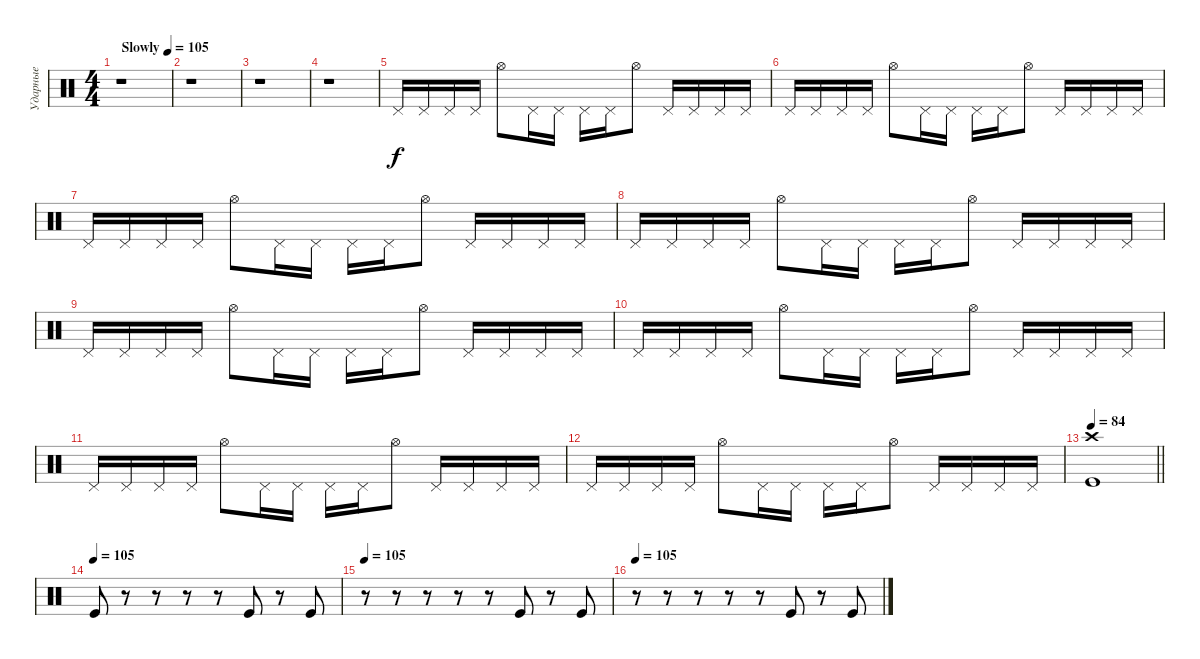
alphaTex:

\track ("Ударные" "Ударные") {instrument percussion}
\staff {score}
\articulation defaults
\ts (4 4)
\tempo (105 "Slowly")
\clef neutral
\ks c
r.1{dy f} |
r.1 |
r.1 |
r.1 |
"Pedal Hi-Hat (hit)".16 "Pedal Hi-Hat (hit)".16 "Pedal Hi-Hat (hit)".16 "Pedal Hi-Hat (hit)".16 "Hi-Hat (open)".8 "Pedal Hi-Hat (hit)".16 "Pedal Hi-Hat (hit)".16 "Pedal Hi-Hat (hit)".16 "Pedal Hi-Hat (hit)".16 "Hi-Hat (open)".8 "Pedal Hi-Hat (hit)".16 "Pedal Hi-Hat (hit)".16 "Pedal Hi-Hat (hit)".16 "Pedal Hi-Hat (hit)".16 |
"Pedal Hi-Hat (hit)".16 "Pedal Hi-Hat (hit)".16 "Pedal Hi-Hat (hit)".16 "Pedal Hi-Hat (hit)".16 "Hi-Hat (open)".8 "Pedal Hi-Hat (hit)".16 "Pedal Hi-Hat (hit)".16 "Pedal Hi-Hat (hit)".16 "Pedal Hi-Hat (hit)".16 "Hi-Hat (open)".8 "Pedal Hi-Hat (hit)".16 "Pedal Hi-Hat (hit)".16 "Pedal Hi-Hat (hit)".16 "Pedal Hi-Hat (hit)".16 |
"Pedal Hi-Hat (hit)".16 "Pedal Hi-Hat (hit)".16 "Pedal Hi-Hat (hit)".16 "Pedal Hi-Hat (hit)".16 "Hi-Hat (open)".8 "Pedal Hi-Hat (hit)".16 "Pedal Hi-Hat (hit)".16 "Pedal Hi-Hat (hit)".16 "Pedal Hi-Hat (hit)".16 "Hi-Hat (open)".8 "Pedal Hi-Hat (hit)".16 "Pedal Hi-Hat (hit)".16 "Pedal Hi-Hat (hit)".16 "Pedal Hi-Hat (hit)".16 |
"Pedal Hi-Hat (hit)".16 "Pedal Hi-Hat (hit)".16 "Pedal Hi-Hat (hit)".16 "Pedal Hi-Hat (hit)".16 "Hi-Hat (open)".8 "Pedal Hi-Hat (hit)".16 "Pedal Hi-Hat (hit)".16 "Pedal Hi-Hat (hit)".16 "Pedal Hi-Hat (hit)".16 "Hi-Hat (open)".8 "Pedal Hi-Hat (hit)".16 "Pedal Hi-Hat (hit)".16 "Pedal Hi-Hat (hit)".16 "Pedal Hi-Hat (hit)".16 |
"Pedal Hi-Hat (hit)".16 "Pedal Hi-Hat (hit)".16 "Pedal Hi-Hat (hit)".16 "Pedal Hi-Hat (hit)".16 "Hi-Hat (open)".8 "Pedal Hi-Hat (hit)".16 "Pedal Hi-Hat (hit)".16 "Pedal Hi-Hat (hit)".16 "Pedal Hi-Hat (hit)".16 "Hi-Hat (open)".8 "Pedal Hi-Hat (hit)".16 "Pedal Hi-Hat (hit)".16 "Pedal Hi-Hat (hit)".16 "Pedal Hi-Hat (hit)".16 |
"Pedal Hi-Hat (hit)".16 "Pedal Hi-Hat (hit)".16 "Pedal Hi-Hat (hit)".16 "Pedal Hi-Hat (hit)".16 "Hi-Hat (open)".8 "Pedal Hi-Hat (hit)".16 "Pedal Hi-Hat (hit)".16 "Pedal Hi-Hat (hit)".16 "Pedal Hi-Hat (hit)".16 "Hi-Hat (open)".8 "Pedal Hi-Hat (hit)".16 "Pedal Hi-Hat (hit)".16 "Pedal Hi-Hat (hit)".16 "Pedal Hi-Hat (hit)".16 |
"Pedal Hi-Hat (hit)".16 "Pedal Hi-Hat (hit)".16 "Pedal Hi-Hat (hit)".16 "Pedal Hi-Hat (hit)".16 "Hi-Hat (open)".8 "Pedal Hi-Hat (hit)".16 "Pedal Hi-Hat (hit)".16 "Pedal Hi-Hat (hit)".16 "Pedal Hi-Hat (hit)".16 "Hi-Hat (open)".8 "Pedal Hi-Hat (hit)".16 "Pedal Hi-Hat (hit)".16 "Pedal Hi-Hat (hit)".16 "Pedal Hi-Hat (hit)".16 |
"Pedal Hi-Hat (hit)".16 "Pedal Hi-Hat (hit)".16 "Pedal Hi-Hat (hit)".16 "Pedal Hi-Hat (hit)".16 "Hi-Hat (open)".8 "Pedal Hi-Hat (hit)".16 "Pedal Hi-Hat (hit)".16 "Pedal Hi-Hat (hit)".16 "Pedal Hi-Hat (hit)".16 "Hi-Hat (open)".8 "Pedal Hi-Hat (hit)".16 "Pedal Hi-Hat (hit)".16 "Pedal Hi-Hat (hit)".16 "Pedal Hi-Hat (hit)".16 |
\tempo 84
\barLineRight lightlight
("Crash high (hit)" "Kick (hit)").1 |
\tempo (105)
"Kick (hit)".8 r.8 r.8 r.8 r.8 "Kick (hit)".8 r.8 "Kick (hit)".8 |
\tempo 105
r.8 r.8 r.8 r.8 r.8 "Kick (hit)".8 r.8 "Kick (hit)".8 |
\tempo 105
r.8 r.8 r.8 r.8 r.8 "Kick (hit)".8 r.8 "Kick (hit)".8
